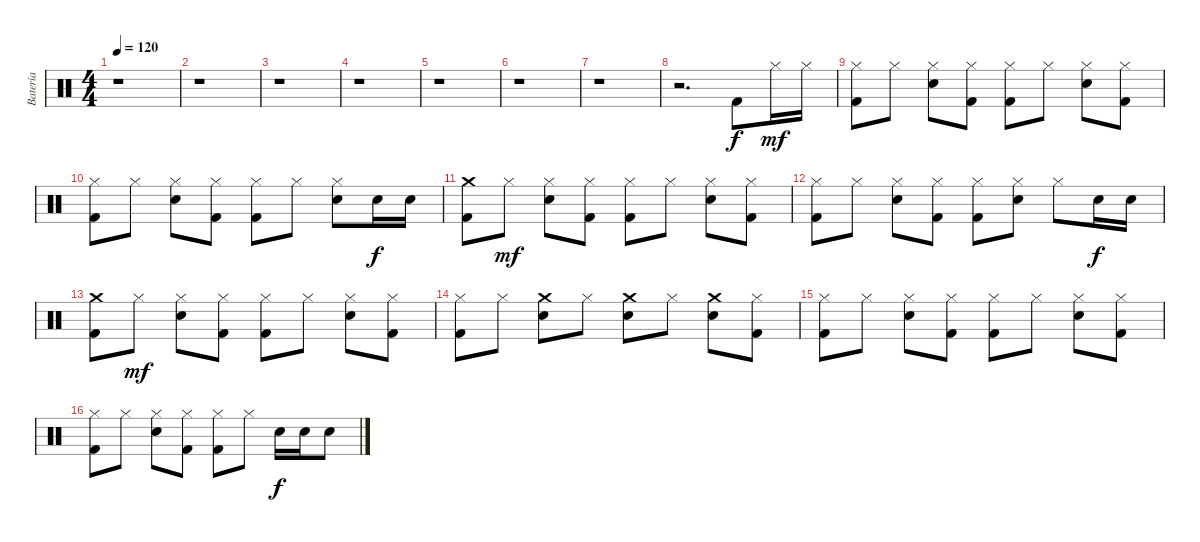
\track ("Batería" "Batería") {instrument percussion}
\staff {score}
\articulation defaults
\ts (4 4)
\tempo 120
\clef neutral
\ks c
r.1{dy f} |
r.1 |
r.1 |
r.1 |
r.1 |
r.1 |
r.1 |
r.2{d} "Kick (hit) 2".8 "Hi-Hat (closed)".16{dy mf} "Hi-Hat (closed)".16 |
("Hi-Hat (closed)" "Kick (hit) 2").8 "Hi-Hat (closed)".8 ("Hi-Hat (closed)" "Snare (hit) 2").8 ("Hi-Hat (closed)" "Kick (hit) 2").8 ("Hi-Hat (closed)" "Kick (hit) 2").8 "Hi-Hat (closed)".8 ("Hi-Hat (closed)" "Snare (hit) 2").8 ("Hi-Hat (closed)" "Kick (hit) 2").8 |
("Hi-Hat (closed)" "Kick (hit) 2").8 "Hi-Hat (closed)".8 ("Hi-Hat (closed)" "Snare (hit) 2").8 ("Hi-Hat (closed)" "Kick (hit) 2").8 ("Hi-Hat (closed)" "Kick (hit) 2").8 "Hi-Hat (closed)".8 ("Hi-Hat (closed)" "Snare (hit) 2").8 "Snare (hit) 2".16{dy f} "Snare (hit) 2".16 |
("Crash medium (hit)" "Kick (hit) 2").8 "Hi-Hat (closed)".8{dy mf} ("Hi-Hat (closed)" "Snare (hit) 2").8 ("Hi-Hat (closed)" "Kick (hit) 2").8 ("Hi-Hat (closed)" "Kick (hit) 2").8 "Hi-Hat (closed)".8 ("Hi-Hat (closed)" "Snare (hit) 2").8 ("Hi-Hat (closed)" "Kick (hit) 2").8 |
("Hi-Hat (closed)" "Kick (hit) 2").8 "Hi-Hat (closed)".8 ("Hi-Hat (closed)" "Snare (hit) 2").8 ("Hi-Hat (closed)" "Kick (hit) 2").8 ("Hi-Hat (closed)" "Kick (hit) 2").8 ("Hi-Hat (closed)" "Snare (hit) 2").8 "Hi-Hat (closed)".8 "Snare (hit) 2".16{dy f} "Snare (hit) 2".16 |
("Crash medium (hit)" "Kick (hit) 2").8 "Hi-Hat (closed)".8{dy mf} ("Hi-Hat (closed)" "Snare (hit) 2").8 ("Hi-Hat (closed)" "Kick (hit) 2").8 ("Hi-Hat (closed)" "Kick (hit) 2").8 "Hi-Hat (closed)".8 ("Hi-Hat (closed)" "Snare (hit) 2").8 ("Hi-Hat (closed)" "Kick (hit) 2").8 |
("Hi-Hat (closed)" "Kick (hit) 2").8 "Hi-Hat (closed)".8 ("Crash medium (hit)" "Snare (hit) 2").8 "Hi-Hat (closed)".8 ("Crash medium (hit)" "Snare (hit) 2").8 "Hi-Hat (closed)".8 ("Crash medium (hit)" "Snare (hit) 2").8 ("Hi-Hat (closed)" "Kick (hit) 2").8 |
("Hi-Hat (closed)" "Kick (hit) 2").8 "Hi-Hat (closed)".8 ("Hi-Hat (closed)" "Snare (hit) 2").8 ("Hi-Hat (closed)" "Kick (hit) 2").8 ("Hi-Hat (closed)" "Kick (hit) 2").8 "Hi-Hat (closed)".8 ("Hi-Hat (closed)" "Snare (hit) 2").8 ("Hi-Hat (closed)" "Kick (hit) 2").8 |
("Hi-Hat (closed)" "Kick (hit) 2").8 "Hi-Hat (closed)".8 ("Hi-Hat (closed)" "Snare (hit) 2").8 ("Hi-Hat (closed)" "Kick (hit) 2").8 ("Hi-Hat (closed)" "Kick (hit) 2").8 "Hi-Hat (closed)".8 "Snare (hit) 2".16{dy f} "Snare (hit) 2".16 "Snare (hit) 2".8
